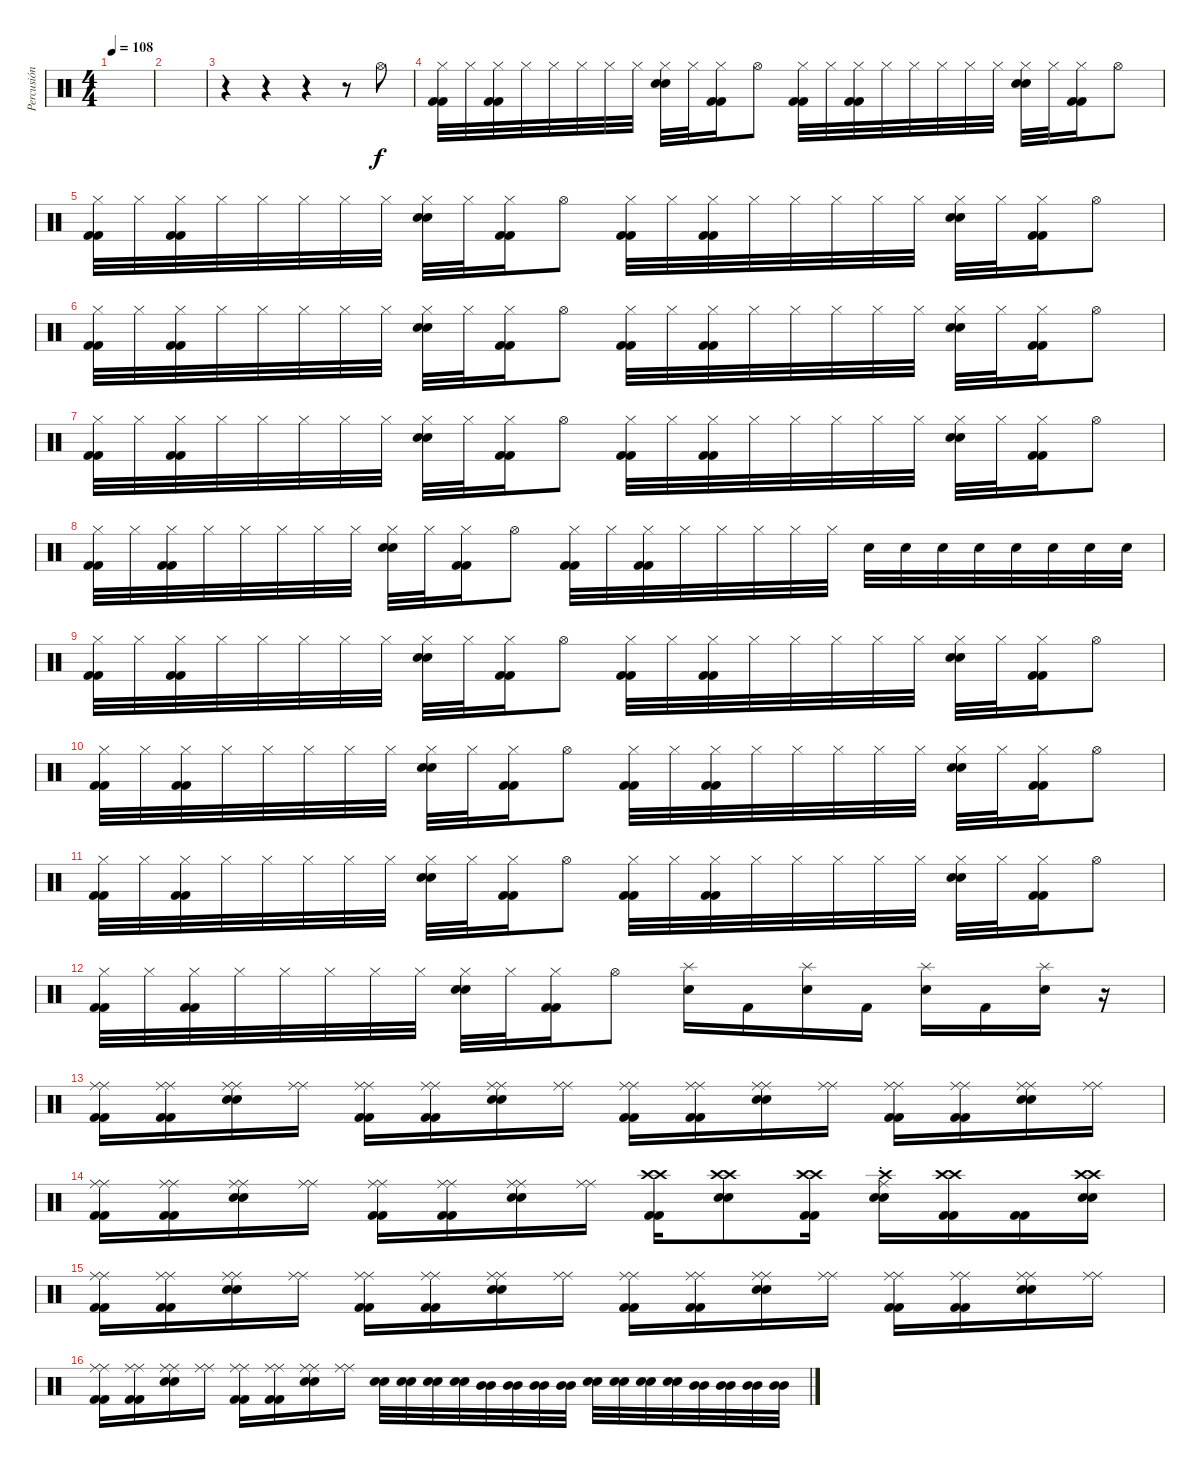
\track ("Percusión" "Percusión") {instrument percussion}
\staff {score}
\articulation defaults
\ts (4 4)
\tempo 108
\tempo 100
\tempo 108
\clef neutral
\ks c
|
|
r.4 r.4 r.4 r.8 "Hi-Hat (open)".8 |
("Hi-Hat (closed)" "Kick (hit) 2" "Kick (hit) 2").32 "Hi-Hat (closed)".32 ("Hi-Hat (closed)" "Kick (hit) 2" "Kick (hit) 2").32 "Hi-Hat (closed)".32 "Hi-Hat (closed)".32 "Hi-Hat (closed)".32 "Hi-Hat (closed)".32 "Hi-Hat (closed)".32 ("Hi-Hat (closed)" "Snare (hit) 2" "Snare (hit) 2").32 "Hi-Hat (closed)".32 ("Hi-Hat (closed)" "Kick (hit) 2" "Kick (hit) 2").16 "Hi-Hat (open)".8 ("Hi-Hat (closed)" "Kick (hit) 2" "Kick (hit) 2").32 "Hi-Hat (closed)".32 ("Hi-Hat (closed)" "Kick (hit) 2" "Kick (hit) 2").32 "Hi-Hat (closed)".32 "Hi-Hat (closed)".32 "Hi-Hat (closed)".32 "Hi-Hat (closed)".32 "Hi-Hat (closed)".32 ("Hi-Hat (closed)" "Snare (hit) 2" "Snare (hit) 2").32 "Hi-Hat (closed)".32 ("Hi-Hat (closed)" "Kick (hit) 2" "Kick (hit) 2").16 "Hi-Hat (open)".8 |
("Hi-Hat (closed)" "Kick (hit) 2" "Kick (hit) 2").32 "Hi-Hat (closed)".32 ("Hi-Hat (closed)" "Kick (hit) 2" "Kick (hit) 2").32 "Hi-Hat (closed)".32 "Hi-Hat (closed)".32 "Hi-Hat (closed)".32 "Hi-Hat (closed)".32 "Hi-Hat (closed)".32 ("Hi-Hat (closed)" "Snare (hit) 2" "Snare (hit) 2").32 "Hi-Hat (closed)".32 ("Hi-Hat (closed)" "Kick (hit) 2" "Kick (hit) 2").16 "Hi-Hat (open)".8 ("Hi-Hat (closed)" "Kick (hit) 2" "Kick (hit) 2").32 "Hi-Hat (closed)".32 ("Hi-Hat (closed)" "Kick (hit) 2" "Kick (hit) 2").32 "Hi-Hat (closed)".32 "Hi-Hat (closed)".32 "Hi-Hat (closed)".32 "Hi-Hat (closed)".32 "Hi-Hat (closed)".32 ("Hi-Hat (closed)" "Snare (hit) 2" "Snare (hit) 2").32 "Hi-Hat (closed)".32 ("Hi-Hat (closed)" "Kick (hit) 2" "Kick (hit) 2").16 "Hi-Hat (open)".8 |
("Hi-Hat (closed)" "Kick (hit) 2" "Kick (hit) 2").32 "Hi-Hat (closed)".32 ("Hi-Hat (closed)" "Kick (hit) 2" "Kick (hit) 2").32 "Hi-Hat (closed)".32 "Hi-Hat (closed)".32 "Hi-Hat (closed)".32 "Hi-Hat (closed)".32 "Hi-Hat (closed)".32 ("Hi-Hat (closed)" "Snare (hit) 2" "Snare (hit) 2").32 "Hi-Hat (closed)".32 ("Hi-Hat (closed)" "Kick (hit) 2" "Kick (hit) 2").16 "Hi-Hat (open)".8 ("Hi-Hat (closed)" "Kick (hit) 2" "Kick (hit) 2").32 "Hi-Hat (closed)".32 ("Hi-Hat (closed)" "Kick (hit) 2" "Kick (hit) 2").32 "Hi-Hat (closed)".32 "Hi-Hat (closed)".32 "Hi-Hat (closed)".32 "Hi-Hat (closed)".32 "Hi-Hat (closed)".32 ("Hi-Hat (closed)" "Snare (hit) 2" "Snare (hit) 2").32 "Hi-Hat (closed)".32 ("Hi-Hat (closed)" "Kick (hit) 2" "Kick (hit) 2").16 "Hi-Hat (open)".8 |
("Hi-Hat (closed)" "Kick (hit) 2" "Kick (hit) 2").32 "Hi-Hat (closed)".32 ("Hi-Hat (closed)" "Kick (hit) 2" "Kick (hit) 2").32 "Hi-Hat (closed)".32 "Hi-Hat (closed)".32 "Hi-Hat (closed)".32 "Hi-Hat (closed)".32 "Hi-Hat (closed)".32 ("Hi-Hat (closed)" "Snare (hit) 2" "Snare (hit) 2").32 "Hi-Hat (closed)".32 ("Hi-Hat (closed)" "Kick (hit) 2" "Kick (hit) 2").16 "Hi-Hat (open)".8 ("Hi-Hat (closed)" "Kick (hit) 2" "Kick (hit) 2").32 "Hi-Hat (closed)".32 ("Hi-Hat (closed)" "Kick (hit) 2" "Kick (hit) 2").32 "Hi-Hat (closed)".32 "Hi-Hat (closed)".32 "Hi-Hat (closed)".32 "Hi-Hat (closed)".32 "Hi-Hat (closed)".32 ("Hi-Hat (closed)" "Snare (hit) 2" "Snare (hit) 2").32 "Hi-Hat (closed)".32 ("Hi-Hat (closed)" "Kick (hit) 2" "Kick (hit) 2").16 "Hi-Hat (open)".8 |
("Hi-Hat (closed)" "Kick (hit) 2" "Kick (hit) 2").32 "Hi-Hat (closed)".32 ("Hi-Hat (closed)" "Kick (hit) 2" "Kick (hit) 2").32 "Hi-Hat (closed)".32 "Hi-Hat (closed)".32 "Hi-Hat (closed)".32 "Hi-Hat (closed)".32 "Hi-Hat (closed)".32 ("Hi-Hat (closed)" "Snare (hit) 2" "Snare (hit) 2").32 "Hi-Hat (closed)".32 ("Hi-Hat (closed)" "Kick (hit) 2" "Kick (hit) 2").16 "Hi-Hat (open)".8 ("Hi-Hat (closed)" "Kick (hit) 2" "Kick (hit) 2").32 "Hi-Hat (closed)".32 ("Hi-Hat (closed)" "Kick (hit) 2" "Kick (hit) 2").32 "Hi-Hat (closed)".32 "Hi-Hat (closed)".32 "Hi-Hat (closed)".32 "Hi-Hat (closed)".32 "Hi-Hat (closed)".32 "Snare (hit) 2".32 "Snare (hit) 2".32 "Snare (hit) 2".32 "Snare (hit) 2".32 "Snare (hit) 2".32 "Snare (hit) 2".32 "Snare (hit) 2".32 "Snare (hit) 2".32 |
("Hi-Hat (closed)" "Kick (hit) 2" "Kick (hit) 2").32 "Hi-Hat (closed)".32 ("Hi-Hat (closed)" "Kick (hit) 2" "Kick (hit) 2").32 "Hi-Hat (closed)".32 "Hi-Hat (closed)".32 "Hi-Hat (closed)".32 "Hi-Hat (closed)".32 "Hi-Hat (closed)".32 ("Hi-Hat (closed)" "Snare (hit) 2" "Snare (hit) 2").32 "Hi-Hat (closed)".32 ("Hi-Hat (closed)" "Kick (hit) 2" "Kick (hit) 2").16 "Hi-Hat (open)".8 ("Hi-Hat (closed)" "Kick (hit) 2" "Kick (hit) 2").32 "Hi-Hat (closed)".32 ("Hi-Hat (closed)" "Kick (hit) 2" "Kick (hit) 2").32 "Hi-Hat (closed)".32 "Hi-Hat (closed)".32 "Hi-Hat (closed)".32 "Hi-Hat (closed)".32 "Hi-Hat (closed)".32 ("Hi-Hat (closed)" "Snare (hit) 2" "Snare (hit) 2").32 "Hi-Hat (closed)".32 ("Hi-Hat (closed)" "Kick (hit) 2" "Kick (hit) 2").16 "Hi-Hat (open)".8 |
("Hi-Hat (closed)" "Kick (hit) 2" "Kick (hit) 2").32 "Hi-Hat (closed)".32 ("Hi-Hat (closed)" "Kick (hit) 2" "Kick (hit) 2").32 "Hi-Hat (closed)".32 "Hi-Hat (closed)".32 "Hi-Hat (closed)".32 "Hi-Hat (closed)".32 "Hi-Hat (closed)".32 ("Hi-Hat (closed)" "Snare (hit) 2" "Snare (hit) 2").32 "Hi-Hat (closed)".32 ("Hi-Hat (closed)" "Kick (hit) 2" "Kick (hit) 2").16 "Hi-Hat (open)".8 ("Hi-Hat (closed)" "Kick (hit) 2" "Kick (hit) 2").32 "Hi-Hat (closed)".32 ("Hi-Hat (closed)" "Kick (hit) 2" "Kick (hit) 2").32 "Hi-Hat (closed)".32 "Hi-Hat (closed)".32 "Hi-Hat (closed)".32 "Hi-Hat (closed)".32 "Hi-Hat (closed)".32 ("Hi-Hat (closed)" "Snare (hit) 2" "Snare (hit) 2").32 "Hi-Hat (closed)".32 ("Hi-Hat (closed)" "Kick (hit) 2" "Kick (hit) 2").16 "Hi-Hat (open)".8 |
("Hi-Hat (closed)" "Kick (hit) 2" "Kick (hit) 2").32 "Hi-Hat (closed)".32 ("Hi-Hat (closed)" "Kick (hit) 2" "Kick (hit) 2").32 "Hi-Hat (closed)".32 "Hi-Hat (closed)".32 "Hi-Hat (closed)".32 "Hi-Hat (closed)".32 "Hi-Hat (closed)".32 ("Hi-Hat (closed)" "Snare (hit) 2" "Snare (hit) 2").32 "Hi-Hat (closed)".32 ("Hi-Hat (closed)" "Kick (hit) 2" "Kick (hit) 2").16 "Hi-Hat (open)".8 ("Hi-Hat (closed)" "Kick (hit) 2" "Kick (hit) 2").32 "Hi-Hat (closed)".32 ("Hi-Hat (closed)" "Kick (hit) 2" "Kick (hit) 2").32 "Hi-Hat (closed)".32 "Hi-Hat (closed)".32 "Hi-Hat (closed)".32 "Hi-Hat (closed)".32 "Hi-Hat (closed)".32 ("Hi-Hat (closed)" "Snare (hit) 2" "Snare (hit) 2").32 "Hi-Hat (closed)".32 ("Hi-Hat (closed)" "Kick (hit) 2" "Kick (hit) 2").16 "Hi-Hat (open)".8 |
("Hi-Hat (closed)" "Kick (hit) 2" "Kick (hit) 2").32 "Hi-Hat (closed)".32 ("Hi-Hat (closed)" "Kick (hit) 2" "Kick (hit) 2").32 "Hi-Hat (closed)".32 "Hi-Hat (closed)".32 "Hi-Hat (closed)".32 "Hi-Hat (closed)".32 "Hi-Hat (closed)".32 ("Hi-Hat (closed)" "Snare (hit) 2" "Snare (hit) 2").32 "Hi-Hat (closed)".32 ("Hi-Hat (closed)" "Kick (hit) 2" "Kick (hit) 2").16 "Hi-Hat (open)".8 ("Snare (hit) 2" "Splash (hit)").16 "Kick (hit) 2".16 ("Snare (hit) 2" "Splash (hit)").16 "Kick (hit) 2".16 ("Snare (hit) 2" "Splash (hit)").16 "Kick (hit) 2".16 ("Snare (hit) 2" "Splash (hit)").16 r.16 |
("Kick (hit) 2" "Kick (hit) 2" "Ride (middle)" "Ride (middle)").16 ("Kick (hit) 2" "Kick (hit) 2" "Ride (middle)" "Ride (middle)").16 ("Snare (hit) 2" "Snare (hit) 2" "Ride (middle)" "Ride (middle)").16 ("Ride (middle)" "Ride (middle)").16 ("Kick (hit) 2" "Kick (hit) 2" "Ride (middle)" "Ride (middle)").16 ("Kick (hit) 2" "Kick (hit) 2" "Ride (middle)" "Ride (middle)").16 ("Snare (hit) 2" "Snare (hit) 2" "Ride (middle)" "Ride (middle)").16 ("Ride (middle)" "Ride (middle)").16 ("Kick (hit) 2" "Kick (hit) 2" "Ride (middle)" "Ride (middle)").16 ("Kick (hit) 2" "Kick (hit) 2" "Ride (middle)" "Ride (middle)").16 ("Snare (hit) 2" "Snare (hit) 2" "Ride (middle)" "Ride (middle)").16 ("Ride (middle)" "Ride (middle)").16 ("Kick (hit) 2" "Kick (hit) 2" "Ride (middle)" "Ride (middle)").16 ("Kick (hit) 2" "Kick (hit) 2" "Ride (middle)" "Ride (middle)").16 ("Snare (hit) 2" "Snare (hit) 2" "Ride (middle)" "Ride (middle)").16 ("Ride (middle)" "Ride (middle)").16 |
("Kick (hit) 2" "Kick (hit) 2" "Ride (middle)" "Ride (middle)").16 ("Kick (hit) 2" "Kick (hit) 2" "Ride (middle)" "Ride (middle)").16 ("Snare (hit) 2" "Snare (hit) 2" "Ride (middle)" "Ride (middle)").16 ("Ride (middle)" "Ride (middle)").16 ("Kick (hit) 2" "Kick (hit) 2" "Ride (middle)" "Ride (middle)").16 ("Kick (hit) 2" "Kick (hit) 2" "Ride (middle)" "Ride (middle)").16 ("Snare (hit) 2" "Snare (hit) 2" "Ride (middle)" "Ride (middle)").16 ("Ride (middle)" "Ride (middle)").16 ("Kick (hit) 2" "Kick (hit) 2" "Crash high (hit)" "Crash high (hit)").16 ("Snare (hit) 2" "Snare (hit) 2" "Crash high (hit)" "Crash high (hit)").8 ("Kick (hit) 2" "Kick (hit) 2" "Crash high (hit)" "Crash high (hit)").16 ("Snare (hit) 2" "Snare (hit) 2" "Ride (choke)" "Crash high (hit)").16 ("Kick (hit) 2" "Kick (hit) 2" "Crash high (hit)" "Crash high (hit)").16 ("Kick (hit) 2" "Kick (hit) 2").16 ("Snare (hit) 2" "Snare (hit) 2" "Crash high (hit)" "Crash high (hit)").16 |
("Kick (hit) 2" "Kick (hit) 2" "Ride (middle)" "Ride (middle)").16 ("Kick (hit) 2" "Kick (hit) 2" "Ride (middle)" "Ride (middle)").16 ("Snare (hit) 2" "Snare (hit) 2" "Ride (middle)" "Ride (middle)").16 ("Ride (middle)" "Ride (middle)").16 ("Kick (hit) 2" "Kick (hit) 2" "Ride (middle)" "Ride (middle)").16 ("Kick (hit) 2" "Kick (hit) 2" "Ride (middle)" "Ride (middle)").16 ("Snare (hit) 2" "Snare (hit) 2" "Ride (middle)" "Ride (middle)").16 ("Ride (middle)" "Ride (middle)").16 ("Kick (hit) 2" "Kick (hit) 2" "Ride (middle)" "Ride (middle)").16 ("Kick (hit) 2" "Kick (hit) 2" "Ride (middle)" "Ride (middle)").16 ("Snare (hit) 2" "Snare (hit) 2" "Ride (middle)" "Ride (middle)").16 ("Ride (middle)" "Ride (middle)").16 ("Kick (hit) 2" "Kick (hit) 2" "Ride (middle)" "Ride (middle)").16 ("Kick (hit) 2" "Kick (hit) 2" "Ride (middle)" "Ride (middle)").16 ("Snare (hit) 2" "Snare (hit) 2" "Ride (middle)" "Ride (middle)").16 ("Ride (middle)" "Ride (middle)").16 |
("Kick (hit) 2" "Kick (hit) 2" "Ride (middle)" "Ride (middle)").16 ("Kick (hit) 2" "Kick (hit) 2" "Ride (middle)" "Ride (middle)").16 ("Snare (hit) 2" "Snare (hit) 2" "Ride (middle)" "Ride (middle)").16 ("Ride (middle)" "Ride (middle)").16 ("Kick (hit) 2" "Kick (hit) 2" "Ride (middle)" "Ride (middle)").16 ("Kick (hit) 2" "Kick (hit) 2" "Ride (middle)" "Ride (middle)").16 ("Snare (hit) 2" "Snare (hit) 2" "Ride (middle)" "Ride (middle)").16 ("Ride (middle)" "Ride (middle)").16 ("Snare (hit) 2" "Snare (hit) 2").32 ("Snare (hit) 2" "Snare (hit) 2").32 ("Snare (hit) 2" "Snare (hit) 2").32 ("Snare (hit) 2" "Snare (hit) 2").32 ("Mid Tom (hit)" "Mid Tom (hit)").32 ("Mid Tom (hit)" "Mid Tom (hit)").32 ("Mid Tom (hit)" "Mid Tom (hit)").32 ("Mid Tom (hit)" "Mid Tom (hit)").32 ("Snare (hit) 2" "Snare (hit) 2").32 ("Snare (hit) 2" "Snare (hit) 2").32 ("Snare (hit) 2" "Snare (hit) 2").32 ("Snare (hit) 2" "Snare (hit) 2").32 ("Mid Tom (hit)" "Mid Tom (hit)").32 ("Mid Tom (hit)" "Mid Tom (hit)").32 ("Mid Tom (hit)" "Mid Tom (hit)").32 ("Mid Tom (hit)" "Mid Tom (hit)").32
